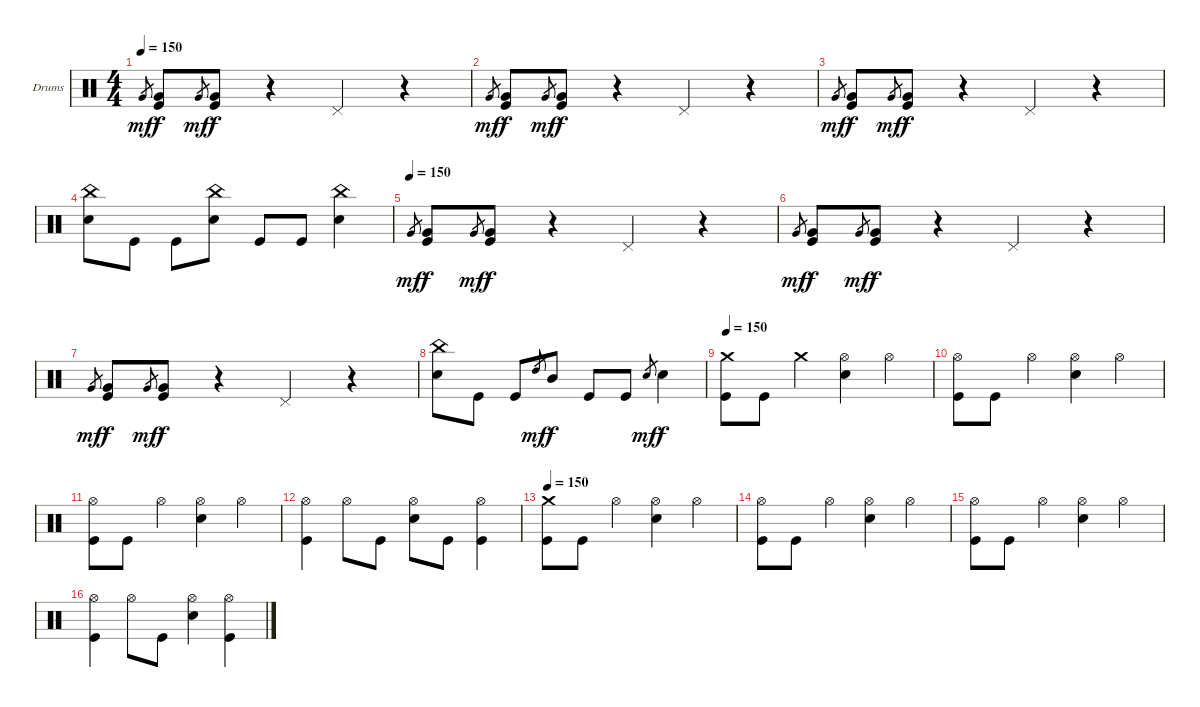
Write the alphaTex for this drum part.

\bracketExtendMode groupsimilarinstruments
\firstSystemTrackNameOrientation horizontal
\otherSystemsTrackNameOrientation horizontal
\track ("Drumkit" "Drums") {instrument percussion}
\staff {score}
\articulation defaults
\ts (4 4)
\tempo 150
\clef neutral
\ks c "Very Low Tom (hit)".8{gr dy mf}
("Very Low Tom (hit)" "Kick (hit)").8{dy f} "Very Low Tom (hit)".8{gr dy mf} ("Very Low Tom (hit)" "Kick (hit)").8{dy f} r.4 "Pedal Hi-Hat (hit)".4 r.4 |
"Very Low Tom (hit)".8{gr dy mf} ("Very Low Tom (hit)" "Kick (hit)").8{dy f} "Very Low Tom (hit)".8{gr dy mf} ("Very Low Tom (hit)" "Kick (hit)").8{dy f} r.4 "Pedal Hi-Hat (hit)".4 r.4 |
"Very Low Tom (hit)".8{gr dy mf} ("Very Low Tom (hit)" "Kick (hit)").8{dy f} "Very Low Tom (hit)".8{gr dy mf} ("Very Low Tom (hit)" "Kick (hit)").8{dy f} r.4 "Pedal Hi-Hat (hit)".4 r.4 |
("China (hit)" "Snare (hit) 2").8 "Kick (hit)".8 "Kick (hit)".8 ("China (hit)" "Snare (hit) 2").8 "Kick (hit)".8 "Kick (hit)".8 ("China (hit)" "Snare (hit) 2").4 |
\tempo (150)
"Very Low Tom (hit)".8{gr dy mf} ("Very Low Tom (hit)" "Kick (hit)").8{dy f} "Very Low Tom (hit)".8{gr dy mf} ("Very Low Tom (hit)" "Kick (hit)").8{dy f} r.4 "Pedal Hi-Hat (hit)".4 r.4 |
"Very Low Tom (hit)".8{gr dy mf} ("Very Low Tom (hit)" "Kick (hit)").8{dy f} "Very Low Tom (hit)".8{gr dy mf} ("Very Low Tom (hit)" "Kick (hit)").8{dy f} r.4 "Pedal Hi-Hat (hit)".4 r.4 |
"Very Low Tom (hit)".8{gr dy mf} ("Very Low Tom (hit)" "Kick (hit)").8{dy f} "Very Low Tom (hit)".8{gr dy mf} ("Very Low Tom (hit)" "Kick (hit)").8{dy f} r.4 "Pedal Hi-Hat (hit)".4 r.4 |
("China (hit)" "Snare (hit) 2").8 "Kick (hit)".8 "Kick (hit)".8 "High Tom (hit)".8{gr dy mf} "Mid Tom (hit)".8{dy f} "Kick (hit)".8 "Kick (hit)".8 "Snare (hit) 2".8{gr dy mf} "Snare (hit) 2".4{dy f} |
\tempo 150
("Crash medium (hit)" "Kick (hit)").8 "Kick (hit)".8 "Crash medium (hit)".4 ("Hi-Hat (open)" "Snare (hit) 2").4 "Hi-Hat (open)".4 |
("Hi-Hat (open)" "Kick (hit)").8 "Kick (hit)".8 "Hi-Hat (open)".4 ("Hi-Hat (open)" "Snare (hit) 2").4 "Hi-Hat (open)".4 |
("Hi-Hat (open)" "Kick (hit)").8 "Kick (hit)".8 "Hi-Hat (open)".4 ("Hi-Hat (open)" "Snare (hit) 2").4 "Hi-Hat (open)".4 |
("Hi-Hat (open)" "Kick (hit)").4 "Hi-Hat (open)".8 "Kick (hit)".8 ("Hi-Hat (open)" "Snare (hit) 2").8 "Kick (hit)".8 ("Hi-Hat (open)" "Kick (hit)").4 |
\tempo 150
("Crash medium (hit)" "Kick (hit)").8 "Kick (hit)".8 "Hi-Hat (open)".4 ("Hi-Hat (open)" "Snare (hit) 2").4 "Hi-Hat (open)".4 |
("Hi-Hat (open)" "Kick (hit)").8 "Kick (hit)".8 "Hi-Hat (open)".4 ("Hi-Hat (open)" "Snare (hit) 2").4 "Hi-Hat (open)".4 |
("Hi-Hat (open)" "Kick (hit)").8 "Kick (hit)".8 "Hi-Hat (open)".4 ("Hi-Hat (open)" "Snare (hit) 2").4 "Hi-Hat (open)".4 |
("Hi-Hat (open)" "Kick (hit)").4 "Hi-Hat (open)".8 "Kick (hit)".8 ("Hi-Hat (open)" "Snare (hit) 2").4 ("Hi-Hat (open)" "Kick (hit)").4
